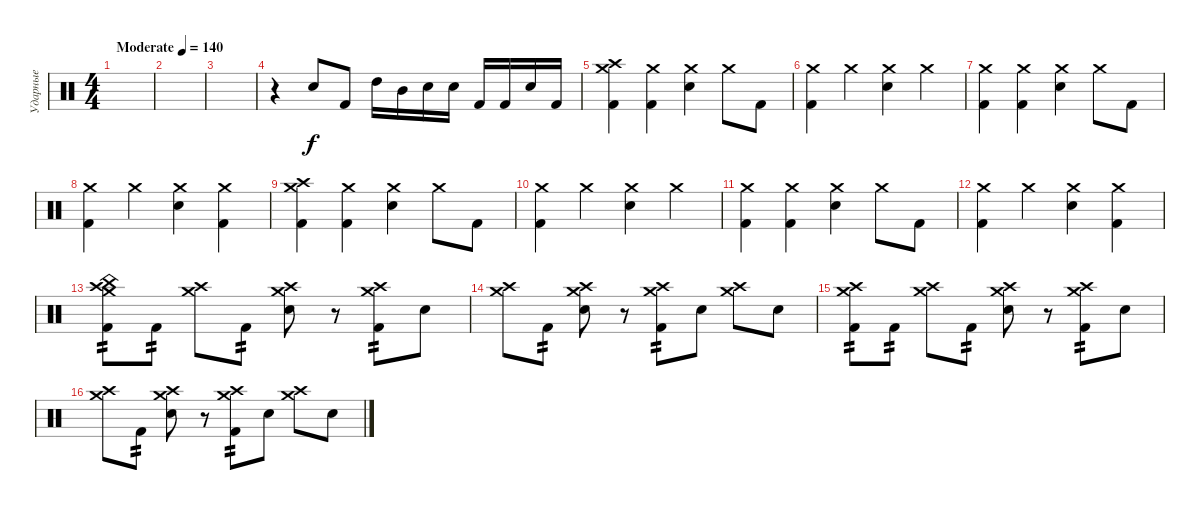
\track ("Ударные" "Ударные") {instrument percussion}
\staff {score}
\articulation defaults
\ts (4 4)
\tempo (140 "Moderate")
\clef neutral
\ks c
|
|
|
r.4 "Electric Snare (hit)".8 "Kick (hit) 2".8 "High Tom (hit)".16 "Mid Tom (hit)".16 "Electric Snare (hit)".16 "Electric Snare (hit)".16 "Kick (hit) 2".16 "Kick (hit) 2".16 "Electric Snare (hit)".16 "Kick (hit) 2".16 |
("Crash high (hit)" "Crash medium (hit)" "Kick (hit) 2").4 ("Crash medium (hit)" "Kick (hit) 2").4 ("Crash medium (hit)" "Electric Snare (hit)").4 "Crash medium (hit)".8 "Kick (hit) 2".8 |
("Crash medium (hit)" "Kick (hit) 2").4 "Crash medium (hit)".4 ("Crash medium (hit)" "Electric Snare (hit)").4 "Crash medium (hit)".4 |
("Crash medium (hit)" "Kick (hit) 2").4 ("Crash medium (hit)" "Kick (hit) 2").4 ("Crash medium (hit)" "Electric Snare (hit)").4 "Crash medium (hit)".8 "Kick (hit) 2".8 |
("Crash medium (hit)" "Kick (hit) 2").4 "Crash medium (hit)".4 ("Crash medium (hit)" "Electric Snare (hit)").4 ("Crash medium (hit)" "Kick (hit) 2").4 |
("Crash high (hit)" "Crash medium (hit)" "Kick (hit) 2").4 ("Crash medium (hit)" "Kick (hit) 2").4 ("Crash medium (hit)" "Electric Snare (hit)").4 "Crash medium (hit)".8 "Kick (hit) 2".8 |
("Crash medium (hit)" "Kick (hit) 2").4 "Crash medium (hit)".4 ("Crash medium (hit)" "Electric Snare (hit)").4 "Crash medium (hit)".4 |
("Crash medium (hit)" "Kick (hit) 2").4 ("Crash medium (hit)" "Kick (hit) 2").4 ("Crash medium (hit)" "Electric Snare (hit)").4 "Crash medium (hit)".8 "Kick (hit) 2".8 |
("Crash medium (hit)" "Kick (hit) 2").4 "Crash medium (hit)".4 ("Crash medium (hit)" "Electric Snare (hit)").4 ("Crash medium (hit)" "Kick (hit) 2").4 |
("Crash high (hit)" "Crash medium (hit)" "China (hit)" "Kick (hit) 2").8{tp 2} "Kick (hit) 2".8{tp 2} ("Crash high (hit)" "Crash medium (hit)").8 "Kick (hit) 2".8{tp 2} ("Crash high (hit)" "Crash medium (hit)" "Electric Snare (hit)").8 r.8 ("Crash high (hit)" "Crash medium (hit)" "Kick (hit) 2").8{tp 2} "Electric Snare (hit)".8 |
("Crash high (hit)" "Crash medium (hit)").8 "Kick (hit) 2".8{tp 2} ("Crash high (hit)" "Crash medium (hit)" "Electric Snare (hit)").8 r.8 ("Crash high (hit)" "Crash medium (hit)" "Kick (hit) 2").8{tp 2} "Electric Snare (hit)".8 ("Crash high (hit)" "Crash medium (hit)").8 "Electric Snare (hit)".8 |
("Crash high (hit)" "Crash medium (hit)" "Kick (hit) 2").8{tp 2} "Kick (hit) 2".8{tp 2} ("Crash high (hit)" "Crash medium (hit)").8 "Kick (hit) 2".8{tp 2} ("Crash high (hit)" "Crash medium (hit)" "Electric Snare (hit)").8 r.8 ("Crash high (hit)" "Crash medium (hit)" "Kick (hit) 2").8{tp 2} "Electric Snare (hit)".8 |
("Crash high (hit)" "Crash medium (hit)").8 "Kick (hit) 2".8{tp 2} ("Crash high (hit)" "Crash medium (hit)" "Electric Snare (hit)").8 r.8 ("Crash high (hit)" "Crash medium (hit)" "Kick (hit) 2").8{tp 2} "Electric Snare (hit)".8 ("Crash high (hit)" "Crash medium (hit)").8 "Electric Snare (hit)".8
